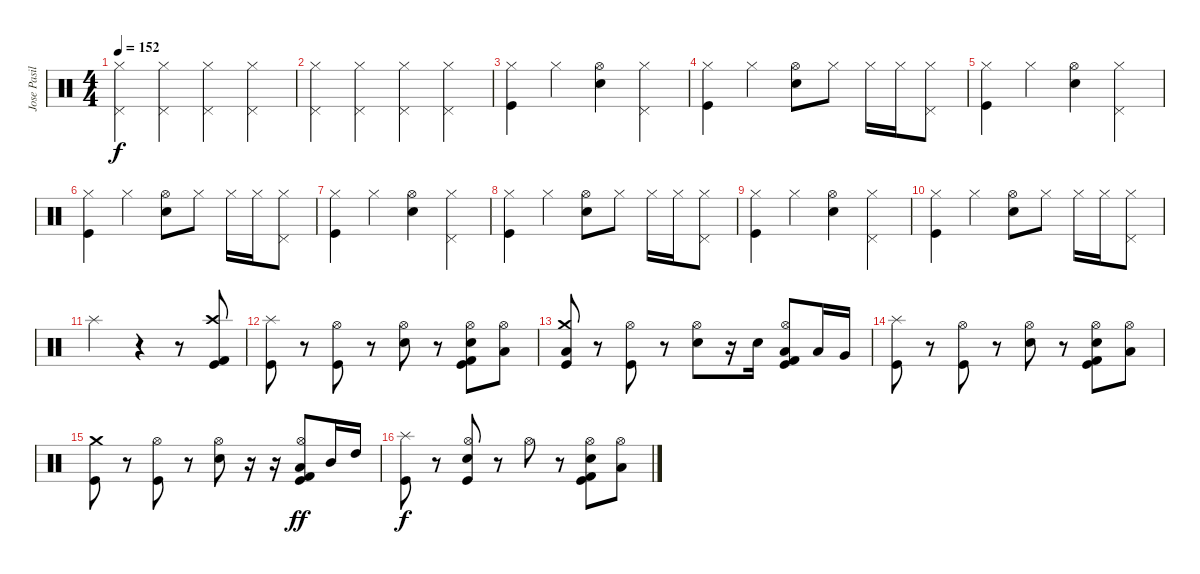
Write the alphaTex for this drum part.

\track ("Jose Pasillas" "Jose Pasil") {instrument percussion}
\staff {score}
\articulation defaults
\ts (4 4)
\tempo 152
\clef neutral
\ks c
("Hi-Hat (closed)" "Pedal Hi-Hat (hit)").4{dy f} ("Hi-Hat (closed)" "Pedal Hi-Hat (hit)").4 ("Hi-Hat (closed)" "Pedal Hi-Hat (hit)").4 ("Hi-Hat (closed)" "Pedal Hi-Hat (hit)").4 |
("Hi-Hat (closed)" "Pedal Hi-Hat (hit)").4 ("Hi-Hat (closed)" "Pedal Hi-Hat (hit)").4 ("Hi-Hat (closed)" "Pedal Hi-Hat (hit)").4 ("Hi-Hat (closed)" "Pedal Hi-Hat (hit)").4 |
("Hi-Hat (closed)" "Kick (hit)").4 "Hi-Hat (closed)".4 ("Hi-Hat (open)" "Electric Snare (hit)").4 ("Hi-Hat (closed)" "Pedal Hi-Hat (hit)").4 |
("Hi-Hat (closed)" "Kick (hit)").4 "Hi-Hat (closed)".4 ("Hi-Hat (open)" "Electric Snare (hit)").8 "Hi-Hat (closed)".8 "Hi-Hat (closed)".16 "Hi-Hat (closed)".16 ("Hi-Hat (closed)" "Pedal Hi-Hat (hit)").8 |
("Hi-Hat (closed)" "Kick (hit)").4 "Hi-Hat (closed)".4 ("Hi-Hat (open)" "Electric Snare (hit)").4 ("Hi-Hat (closed)" "Pedal Hi-Hat (hit)").4 |
("Hi-Hat (closed)" "Kick (hit)").4 "Hi-Hat (closed)".4 ("Hi-Hat (open)" "Electric Snare (hit)").8 "Hi-Hat (closed)".8 "Hi-Hat (closed)".16 "Hi-Hat (closed)".16 ("Hi-Hat (closed)" "Pedal Hi-Hat (hit)").8 |
("Hi-Hat (closed)" "Kick (hit)").4 "Hi-Hat (closed)".4 ("Hi-Hat (open)" "Electric Snare (hit)").4 ("Hi-Hat (closed)" "Pedal Hi-Hat (hit)").4 |
("Hi-Hat (closed)" "Kick (hit)").4 "Hi-Hat (closed)".4 ("Hi-Hat (open)" "Electric Snare (hit)").8 "Hi-Hat (closed)".8 "Hi-Hat (closed)".16 "Hi-Hat (closed)".16 ("Hi-Hat (closed)" "Pedal Hi-Hat (hit)").8 |
("Hi-Hat (closed)" "Kick (hit)").4 "Hi-Hat (closed)".4 ("Hi-Hat (open)" "Electric Snare (hit)").4 ("Hi-Hat (closed)" "Pedal Hi-Hat (hit)").4 |
("Hi-Hat (closed)" "Kick (hit)").4 "Hi-Hat (closed)".4 ("Hi-Hat (open)" "Electric Snare (hit)").8 "Hi-Hat (closed)".8 "Hi-Hat (closed)".16 "Hi-Hat (closed)".16 ("Hi-Hat (closed)" "Pedal Hi-Hat (hit)").8 |
"Splash (hit)".2 r.4 r.8 ("Crash high (hit)" "Kick (hit) 2" "Kick (hit)").8 |
("Splash (hit)" "Kick (hit)").8 r.8 ("Hi-Hat (open)" "Kick (hit)").8 r.8 ("Hi-Hat (open)" "Electric Snare (hit)").8 r.8 ("Hi-Hat (open)" "Electric Snare (hit)" "Kick (hit) 2" "Kick (hit)").8 ("Hi-Hat (open)" "Low Tom (hit)").8 |
("Crash medium (hit)" "Low Floor Tom (hit)" "Kick (hit)").8 r.8 ("Hi-Hat (open)" "Kick (hit)").8 r.8 ("Hi-Hat (open)" "Electric Snare (hit)").8 r.16 "Electric Snare (hit)".16 ("Hi-Hat (open)" "Low Tom (hit)" "Kick (hit) 2" "Kick (hit)").8 "Low Floor Tom (hit)".16 "Very Low Tom (hit)".16 |
("Splash (hit)" "Kick (hit)").8 r.8 ("Hi-Hat (open)" "Kick (hit)").8 r.8 ("Hi-Hat (open)" "Electric Snare (hit)").8 r.8 ("Hi-Hat (open)" "Electric Snare (hit)" "Kick (hit) 2" "Kick (hit)").8 ("Hi-Hat (open)" "Low Tom (hit)").8 |
("Crash medium (hit)" "Kick (hit)").8 r.8 ("Hi-Hat (open)" "Kick (hit)").8 r.8 ("Hi-Hat (open)" "Electric Snare (hit)").8 r.16 r.16 ("Hi-Hat (open)" "Low Tom (hit)" "Kick (hit) 2" "Kick (hit)").8{dy ff} "Mid Tom (hit)".16 "High Tom (hit)".16 |
("Splash (hit)" "Kick (hit)").8{dy f} r.8 ("Hi-Hat (open)" "Electric Snare (hit)" "Kick (hit)").8 r.8 "Hi-Hat (open)".8 r.8 ("Hi-Hat (open)" "Electric Snare (hit)" "Kick (hit) 2" "Kick (hit)").8 ("Hi-Hat (open)" "Low Tom (hit)").8
